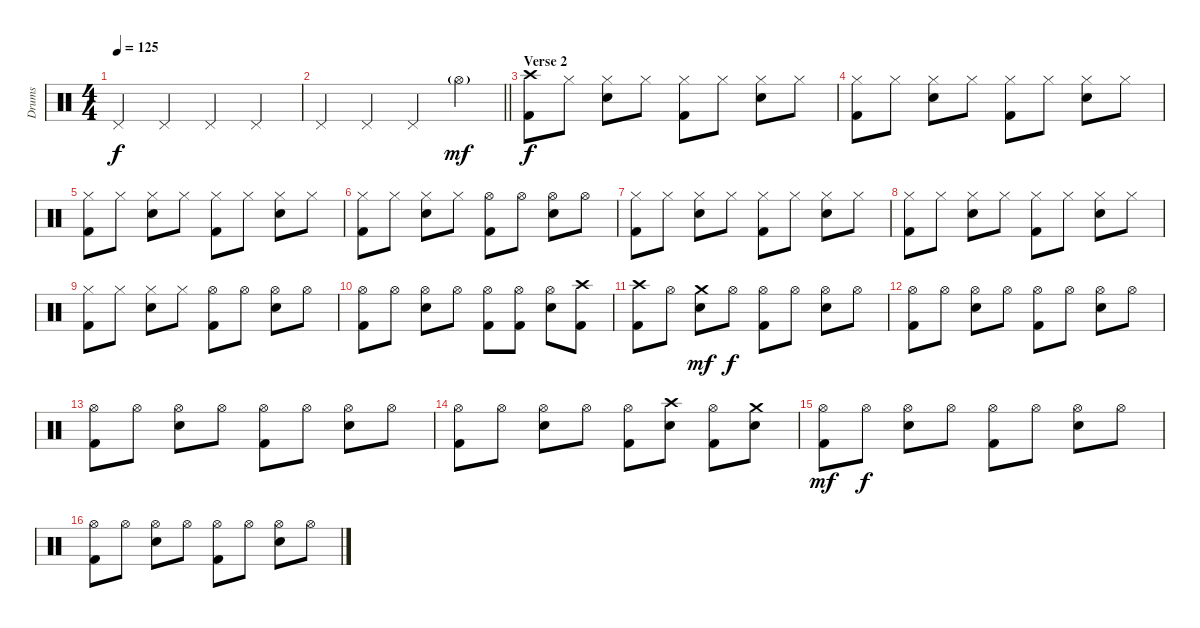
\track ("Drums" "Drums") {instrument percussion}
\staff {score}
\articulation defaults
\ts (4 4)
\tempo 125
\clef neutral
\ks c "Pedal Hi-Hat (hit)".4{dy f} "Pedal Hi-Hat (hit)".4 "Pedal Hi-Hat (hit)".4 "Pedal Hi-Hat (hit)".4
|
\barLineRight lightlight "Pedal Hi-Hat (hit)".4 "Pedal Hi-Hat (hit)".4 "Pedal Hi-Hat (hit)".4 "Hi-Hat (open)"{g}.4{dy mf}
|
\section ("" "Verse 2")
("Crash high (hit)" "Kick (hit) 2").8{dy f} "Hi-Hat (closed)".8 ("Hi-Hat (closed)" "Electric Snare (hit)").8 "Hi-Hat (closed)".8 ("Hi-Hat (closed)" "Kick (hit) 2").8 "Hi-Hat (closed)".8 ("Hi-Hat (closed)" "Electric Snare (hit)").8 "Hi-Hat (closed)".8 |
("Hi-Hat (closed)" "Kick (hit) 2").8 "Hi-Hat (closed)".8 ("Hi-Hat (closed)" "Electric Snare (hit)").8 "Hi-Hat (closed)".8 ("Hi-Hat (closed)" "Kick (hit) 2").8 "Hi-Hat (closed)".8 ("Hi-Hat (closed)" "Electric Snare (hit)").8 "Hi-Hat (closed)".8 |
("Hi-Hat (closed)" "Kick (hit) 2").8 "Hi-Hat (closed)".8 ("Hi-Hat (closed)" "Electric Snare (hit)").8 "Hi-Hat (closed)".8 ("Hi-Hat (closed)" "Kick (hit) 2").8 "Hi-Hat (closed)".8 ("Hi-Hat (closed)" "Electric Snare (hit)").8 "Hi-Hat (closed)".8 |
("Hi-Hat (closed)" "Kick (hit) 2").8 "Hi-Hat (closed)".8 ("Hi-Hat (closed)" "Electric Snare (hit)").8 "Hi-Hat (closed)".8 ("Hi-Hat (open)" "Kick (hit) 2").8 "Hi-Hat (open)".8 ("Hi-Hat (open)" "Electric Snare (hit)").8 "Hi-Hat (open)".8 |
("Hi-Hat (closed)" "Kick (hit) 2").8 "Hi-Hat (closed)".8 ("Hi-Hat (closed)" "Electric Snare (hit)").8 "Hi-Hat (closed)".8 ("Hi-Hat (closed)" "Kick (hit) 2").8 "Hi-Hat (closed)".8 ("Hi-Hat (closed)" "Electric Snare (hit)").8 "Hi-Hat (closed)".8 |
("Hi-Hat (closed)" "Kick (hit) 2").8 "Hi-Hat (closed)".8 ("Hi-Hat (closed)" "Electric Snare (hit)").8 "Hi-Hat (closed)".8 ("Hi-Hat (closed)" "Kick (hit) 2").8 "Hi-Hat (closed)".8 ("Hi-Hat (closed)" "Electric Snare (hit)").8 "Hi-Hat (closed)".8 |
("Hi-Hat (closed)" "Kick (hit) 2").8 "Hi-Hat (closed)".8 ("Hi-Hat (closed)" "Electric Snare (hit)").8 "Hi-Hat (closed)".8 ("Hi-Hat (open)" "Kick (hit) 2").8 "Hi-Hat (open)".8 ("Hi-Hat (open)" "Electric Snare (hit)").8 "Hi-Hat (open)".8 |
("Hi-Hat (open)" "Kick (hit) 2").8 "Hi-Hat (open)".8 ("Hi-Hat (open)" "Electric Snare (hit)").8 "Hi-Hat (open)".8 ("Hi-Hat (open)" "Kick (hit) 2").8 ("Hi-Hat (open)" "Kick (hit) 2").8 ("Hi-Hat (open)" "Electric Snare (hit)").8 ("Crash high (hit)" "Kick (hit) 2").8 |
("Crash high (hit)" "Kick (hit) 2").8 "Hi-Hat (open)".8 ("Crash medium (hit)" "Electric Snare (hit)").8{dy mf} "Hi-Hat (open)".8{dy f} ("Hi-Hat (open)" "Kick (hit) 2").8 "Hi-Hat (open)".8 ("Hi-Hat (open)" "Electric Snare (hit)").8 "Hi-Hat (open)".8 |
("Hi-Hat (open)" "Kick (hit) 2").8 "Hi-Hat (open)".8 ("Hi-Hat (open)" "Electric Snare (hit)").8 "Hi-Hat (open)".8 ("Hi-Hat (open)" "Kick (hit) 2").8 "Hi-Hat (open)".8 ("Hi-Hat (open)" "Electric Snare (hit)").8 "Hi-Hat (open)".8 |
("Hi-Hat (open)" "Kick (hit) 2").8 "Hi-Hat (open)".8 ("Hi-Hat (open)" "Electric Snare (hit)").8 "Hi-Hat (open)".8 ("Hi-Hat (open)" "Kick (hit) 2").8 "Hi-Hat (open)".8 ("Hi-Hat (open)" "Electric Snare (hit)").8 "Hi-Hat (open)".8 |
("Hi-Hat (open)" "Kick (hit) 2").8 "Hi-Hat (open)".8 ("Hi-Hat (open)" "Electric Snare (hit)").8 "Hi-Hat (open)".8 ("Hi-Hat (open)" "Kick (hit) 2").8 ("Crash high (hit)" "Electric Snare (hit)").8 ("Hi-Hat (open)" "Kick (hit) 2").8 ("Crash medium (hit)" "Electric Snare (hit)").8 |
("Hi-Hat (open)" "Kick (hit) 2").8{dy mf} "Hi-Hat (open)".8{dy f} ("Hi-Hat (open)" "Electric Snare (hit)").8 "Hi-Hat (open)".8 ("Hi-Hat (open)" "Kick (hit) 2").8 "Hi-Hat (open)".8 ("Hi-Hat (open)" "Electric Snare (hit)").8 "Hi-Hat (open)".8 |
("Hi-Hat (open)" "Kick (hit) 2").8 "Hi-Hat (open)".8 ("Hi-Hat (open)" "Electric Snare (hit)").8 "Hi-Hat (open)".8 ("Hi-Hat (open)" "Kick (hit) 2").8 "Hi-Hat (open)".8 ("Hi-Hat (open)" "Electric Snare (hit)").8 "Hi-Hat (open)".8
